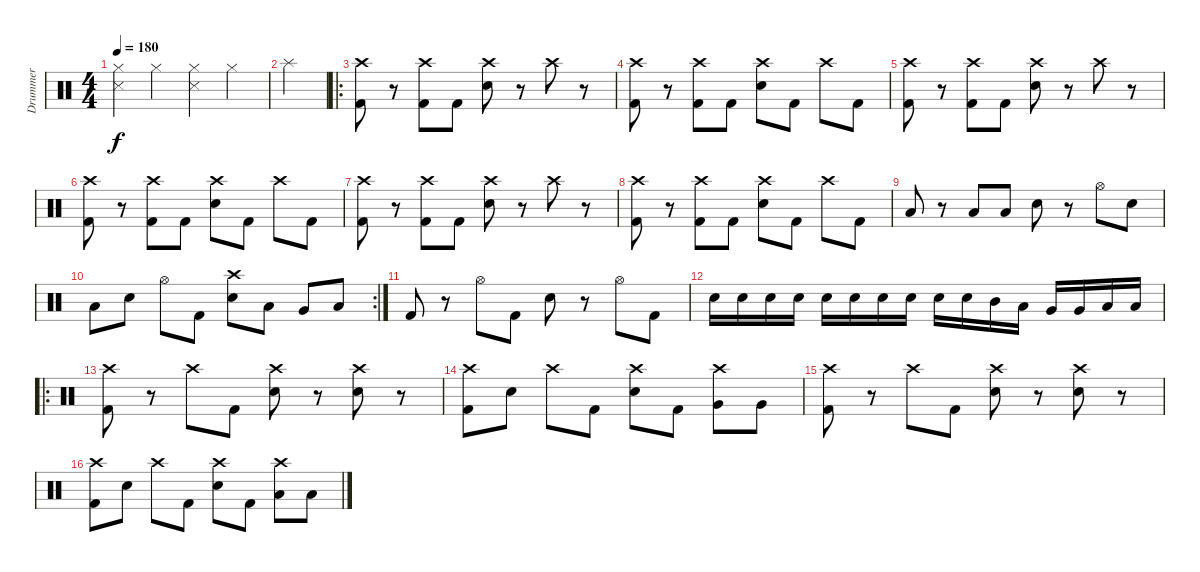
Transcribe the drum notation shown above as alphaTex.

\track ("Drummer" "Drummer") {instrument percussion}
\staff {score}
\articulation defaults
\ts (4 4)
\tempo 180
\clef neutral
\ks c
("Hi-Hat (closed)" "Metronome (hit)").4{dy f} "Hi-Hat (closed)".4 ("Hi-Hat (closed)" "Metronome (hit)").4 "Hi-Hat (closed)".4 |
"Splash (hit)".4 |
\ro
("Crash high (hit)" "Kick (hit) 2").8 r.8 ("Crash high (hit)" "Kick (hit) 2").8 "Kick (hit) 2".8 ("Crash high (hit)" "Electric Snare (hit)").8 r.8 "Crash high (hit)".8 r.8 |
("Crash high (hit)" "Kick (hit) 2").8 r.8 ("Crash high (hit)" "Kick (hit) 2").8 "Kick (hit) 2".8 ("Crash high (hit)" "Electric Snare (hit)").8 "Kick (hit) 2".8 "Crash high (hit)".8 "Kick (hit) 2".8 |
("Crash high (hit)" "Kick (hit) 2").8 r.8 ("Crash high (hit)" "Kick (hit) 2").8 "Kick (hit) 2".8 ("Crash high (hit)" "Electric Snare (hit)").8 r.8 "Crash high (hit)".8 r.8 |
("Crash high (hit)" "Kick (hit) 2").8 r.8 ("Crash high (hit)" "Kick (hit) 2").8 "Kick (hit) 2".8 ("Crash high (hit)" "Electric Snare (hit)").8 "Kick (hit) 2".8 "Crash high (hit)".8 "Kick (hit) 2".8 |
("Crash high (hit)" "Kick (hit) 2").8 r.8 ("Crash high (hit)" "Kick (hit) 2").8 "Kick (hit) 2".8 ("Crash high (hit)" "Electric Snare (hit)").8 r.8 "Crash high (hit)".8 r.8 |
("Crash high (hit)" "Kick (hit) 2").8 r.8 ("Crash high (hit)" "Kick (hit) 2").8 "Kick (hit) 2".8 ("Crash high (hit)" "Electric Snare (hit)").8 "Kick (hit) 2".8 "Crash high (hit)".8 "Kick (hit) 2".8 |
"Low Floor Tom (hit)".8 r.8 "Low Floor Tom (hit)".8 "Low Floor Tom (hit)".8 "Electric Snare (hit)".8 r.8 "Hi-Hat (open)".8 "Electric Snare (hit)".8 |
\rc 2 "Low Tom (hit)".8 "Electric Snare (hit)".8 "Hi-Hat (open)".8 "Kick (hit) 2".8
("Crash high (hit)" "Electric Snare (hit)").8 "Low Tom (hit)".8 "Very Low Tom (hit)".8 "Low Floor Tom (hit)".8 |
"Kick (hit) 2".8 r.8 "Hi-Hat (open)".8 "Kick (hit) 2".8 "Electric Snare (hit)".8 r.8 "Hi-Hat (open)".8 "Kick (hit) 2".8 |
"Electric Snare (hit)".16 "Electric Snare (hit)".16 "Electric Snare (hit)".16 "Electric Snare (hit)".16 "Electric Snare (hit)".16 "Electric Snare (hit)".16 "Electric Snare (hit)".16 "Electric Snare (hit)".16 "Electric Snare (hit)".16 "Electric Snare (hit)".16 "Mid Tom (hit)".16 "Low Tom (hit)".16 "Very Low Tom (hit)".16 "Very Low Tom (hit)".16 "Low Floor Tom (hit)".16 "Low Floor Tom (hit)".16 |
\ro
("Crash high (hit)" "Kick (hit) 2").8 r.8 "Crash high (hit)".8 "Kick (hit) 2".8 ("Crash high (hit)" "Electric Snare (hit)").8 r.8 ("Crash high (hit)" "Electric Snare (hit)").8 r.8 |
("Crash high (hit)" "Kick (hit) 2").8 "Electric Snare (hit)".8 "Crash high (hit)".8 "Kick (hit) 2".8 ("Crash high (hit)" "Electric Snare (hit)").8 "Kick (hit) 2".8 ("Crash high (hit)" "Very Low Tom (hit)").8 "Very Low Tom (hit)".8 |
("Crash high (hit)" "Kick (hit) 2").8 r.8 "Crash high (hit)".8 "Kick (hit) 2".8 ("Crash high (hit)" "Electric Snare (hit)").8 r.8 ("Crash high (hit)" "Electric Snare (hit)").8 r.8 |
("Crash high (hit)" "Kick (hit) 2").8 "Electric Snare (hit)".8 "Crash high (hit)".8 "Kick (hit) 2".8 ("Crash high (hit)" "Electric Snare (hit)").8 "Kick (hit) 2".8 ("Crash high (hit)" "Low Floor Tom (hit)").8 "Low Floor Tom (hit)".8
